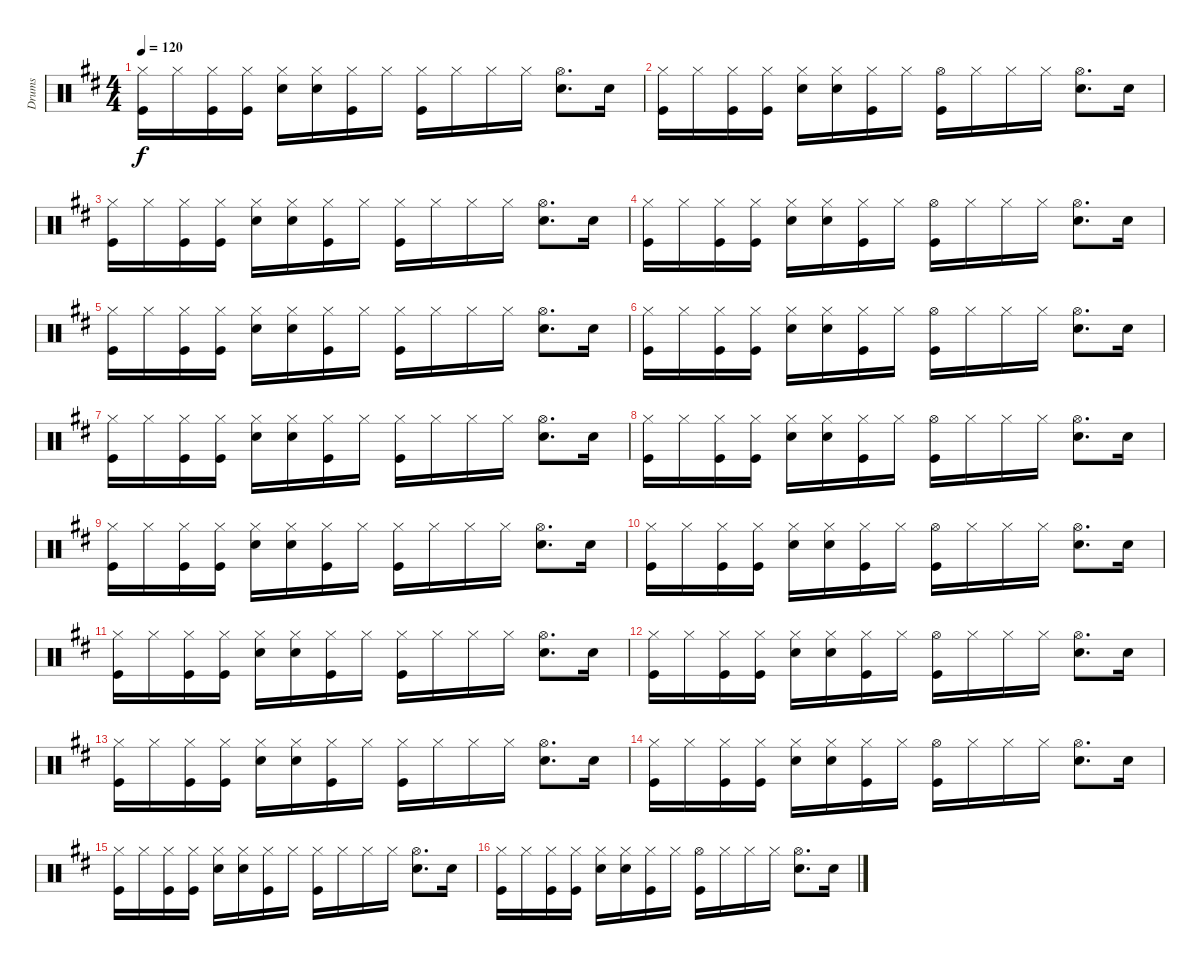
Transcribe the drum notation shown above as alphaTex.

\track ("Drums" "Drums") {instrument percussion}
\staff {score}
\articulation defaults
\ts (4 4)
\tempo 120
\clef neutral
\ks d
("Hi-Hat (closed)" "Kick (hit)").16{dy f} "Hi-Hat (closed)".16 ("Hi-Hat (closed)" "Kick (hit)").16 ("Hi-Hat (closed)" "Kick (hit)").16 ("Hi-Hat (closed)" "Snare (hit) 2").16 ("Hi-Hat (closed)" "Snare (hit) 2").16 ("Hi-Hat (closed)" "Kick (hit)").16 "Hi-Hat (closed)".16 ("Hi-Hat (closed)" "Kick (hit)").16 "Hi-Hat (closed)".16 "Hi-Hat (closed)".16 "Hi-Hat (closed)".16 ("Hi-Hat (open)" "Snare (hit) 2").8{d} "Snare (hit) 2".16 |
("Hi-Hat (closed)" "Kick (hit)").16 "Hi-Hat (closed)".16 ("Hi-Hat (closed)" "Kick (hit)").16 ("Hi-Hat (closed)" "Kick (hit)").16 ("Hi-Hat (closed)" "Snare (hit) 2").16 ("Hi-Hat (closed)" "Snare (hit) 2").16 ("Hi-Hat (closed)" "Kick (hit)").16 "Hi-Hat (closed)".16 ("Hi-Hat (open)" "Kick (hit)").16 "Hi-Hat (closed)".16 "Hi-Hat (closed)".16 "Hi-Hat (closed)".16 ("Hi-Hat (open)" "Snare (hit) 2").8{d} "Snare (hit) 2".16 |
("Hi-Hat (closed)" "Kick (hit)").16 "Hi-Hat (closed)".16 ("Hi-Hat (closed)" "Kick (hit)").16 ("Hi-Hat (closed)" "Kick (hit)").16 ("Hi-Hat (closed)" "Snare (hit) 2").16 ("Hi-Hat (closed)" "Snare (hit) 2").16 ("Hi-Hat (closed)" "Kick (hit)").16 "Hi-Hat (closed)".16 ("Hi-Hat (closed)" "Kick (hit)").16 "Hi-Hat (closed)".16 "Hi-Hat (closed)".16 "Hi-Hat (closed)".16 ("Hi-Hat (open)" "Snare (hit) 2").8{d} "Snare (hit) 2".16 |
("Hi-Hat (closed)" "Kick (hit)").16 "Hi-Hat (closed)".16 ("Hi-Hat (closed)" "Kick (hit)").16 ("Hi-Hat (closed)" "Kick (hit)").16 ("Hi-Hat (closed)" "Snare (hit) 2").16 ("Hi-Hat (closed)" "Snare (hit) 2").16 ("Hi-Hat (closed)" "Kick (hit)").16 "Hi-Hat (closed)".16 ("Hi-Hat (open)" "Kick (hit)").16 "Hi-Hat (closed)".16 "Hi-Hat (closed)".16 "Hi-Hat (closed)".16 ("Hi-Hat (open)" "Snare (hit) 2").8{d} "Snare (hit) 2".16 |
("Hi-Hat (closed)" "Kick (hit)").16 "Hi-Hat (closed)".16 ("Hi-Hat (closed)" "Kick (hit)").16 ("Hi-Hat (closed)" "Kick (hit)").16 ("Hi-Hat (closed)" "Snare (hit) 2").16 ("Hi-Hat (closed)" "Snare (hit) 2").16 ("Hi-Hat (closed)" "Kick (hit)").16 "Hi-Hat (closed)".16 ("Hi-Hat (closed)" "Kick (hit)").16 "Hi-Hat (closed)".16 "Hi-Hat (closed)".16 "Hi-Hat (closed)".16 ("Hi-Hat (open)" "Snare (hit) 2").8{d} "Snare (hit) 2".16 |
("Hi-Hat (closed)" "Kick (hit)").16 "Hi-Hat (closed)".16 ("Hi-Hat (closed)" "Kick (hit)").16 ("Hi-Hat (closed)" "Kick (hit)").16 ("Hi-Hat (closed)" "Snare (hit) 2").16 ("Hi-Hat (closed)" "Snare (hit) 2").16 ("Hi-Hat (closed)" "Kick (hit)").16 "Hi-Hat (closed)".16 ("Hi-Hat (open)" "Kick (hit)").16 "Hi-Hat (closed)".16 "Hi-Hat (closed)".16 "Hi-Hat (closed)".16 ("Hi-Hat (open)" "Snare (hit) 2").8{d} "Snare (hit) 2".16 |
("Hi-Hat (closed)" "Kick (hit)").16 "Hi-Hat (closed)".16 ("Hi-Hat (closed)" "Kick (hit)").16 ("Hi-Hat (closed)" "Kick (hit)").16 ("Hi-Hat (closed)" "Snare (hit) 2").16 ("Hi-Hat (closed)" "Snare (hit) 2").16 ("Hi-Hat (closed)" "Kick (hit)").16 "Hi-Hat (closed)".16 ("Hi-Hat (closed)" "Kick (hit)").16 "Hi-Hat (closed)".16 "Hi-Hat (closed)".16 "Hi-Hat (closed)".16 ("Hi-Hat (open)" "Snare (hit) 2").8{d} "Snare (hit) 2".16 |
("Hi-Hat (closed)" "Kick (hit)").16 "Hi-Hat (closed)".16 ("Hi-Hat (closed)" "Kick (hit)").16 ("Hi-Hat (closed)" "Kick (hit)").16 ("Hi-Hat (closed)" "Snare (hit) 2").16 ("Hi-Hat (closed)" "Snare (hit) 2").16 ("Hi-Hat (closed)" "Kick (hit)").16 "Hi-Hat (closed)".16 ("Hi-Hat (open)" "Kick (hit)").16 "Hi-Hat (closed)".16 "Hi-Hat (closed)".16 "Hi-Hat (closed)".16 ("Hi-Hat (open)" "Snare (hit) 2").8{d} "Snare (hit) 2".16 |
("Hi-Hat (closed)" "Kick (hit)").16 "Hi-Hat (closed)".16 ("Hi-Hat (closed)" "Kick (hit)").16 ("Hi-Hat (closed)" "Kick (hit)").16 ("Hi-Hat (closed)" "Snare (hit) 2").16 ("Hi-Hat (closed)" "Snare (hit) 2").16 ("Hi-Hat (closed)" "Kick (hit)").16 "Hi-Hat (closed)".16 ("Hi-Hat (closed)" "Kick (hit)").16 "Hi-Hat (closed)".16 "Hi-Hat (closed)".16 "Hi-Hat (closed)".16 ("Hi-Hat (open)" "Snare (hit) 2").8{d} "Snare (hit) 2".16 |
("Hi-Hat (closed)" "Kick (hit)").16 "Hi-Hat (closed)".16 ("Hi-Hat (closed)" "Kick (hit)").16 ("Hi-Hat (closed)" "Kick (hit)").16 ("Hi-Hat (closed)" "Snare (hit) 2").16 ("Hi-Hat (closed)" "Snare (hit) 2").16 ("Hi-Hat (closed)" "Kick (hit)").16 "Hi-Hat (closed)".16 ("Hi-Hat (open)" "Kick (hit)").16 "Hi-Hat (closed)".16 "Hi-Hat (closed)".16 "Hi-Hat (closed)".16 ("Hi-Hat (open)" "Snare (hit) 2").8{d} "Snare (hit) 2".16 |
("Hi-Hat (closed)" "Kick (hit)").16 "Hi-Hat (closed)".16 ("Hi-Hat (closed)" "Kick (hit)").16 ("Hi-Hat (closed)" "Kick (hit)").16 ("Hi-Hat (closed)" "Snare (hit) 2").16 ("Hi-Hat (closed)" "Snare (hit) 2").16 ("Hi-Hat (closed)" "Kick (hit)").16 "Hi-Hat (closed)".16 ("Hi-Hat (closed)" "Kick (hit)").16 "Hi-Hat (closed)".16 "Hi-Hat (closed)".16 "Hi-Hat (closed)".16 ("Hi-Hat (open)" "Snare (hit) 2").8{d} "Snare (hit) 2".16 |
("Hi-Hat (closed)" "Kick (hit)").16 "Hi-Hat (closed)".16 ("Hi-Hat (closed)" "Kick (hit)").16 ("Hi-Hat (closed)" "Kick (hit)").16 ("Hi-Hat (closed)" "Snare (hit) 2").16 ("Hi-Hat (closed)" "Snare (hit) 2").16 ("Hi-Hat (closed)" "Kick (hit)").16 "Hi-Hat (closed)".16 ("Hi-Hat (open)" "Kick (hit)").16 "Hi-Hat (closed)".16 "Hi-Hat (closed)".16 "Hi-Hat (closed)".16 ("Hi-Hat (open)" "Snare (hit) 2").8{d} "Snare (hit) 2".16 |
("Hi-Hat (closed)" "Kick (hit)").16 "Hi-Hat (closed)".16 ("Hi-Hat (closed)" "Kick (hit)").16 ("Hi-Hat (closed)" "Kick (hit)").16 ("Hi-Hat (closed)" "Snare (hit) 2").16 ("Hi-Hat (closed)" "Snare (hit) 2").16 ("Hi-Hat (closed)" "Kick (hit)").16 "Hi-Hat (closed)".16 ("Hi-Hat (closed)" "Kick (hit)").16 "Hi-Hat (closed)".16 "Hi-Hat (closed)".16 "Hi-Hat (closed)".16 ("Hi-Hat (open)" "Snare (hit) 2").8{d} "Snare (hit) 2".16 |
("Hi-Hat (closed)" "Kick (hit)").16 "Hi-Hat (closed)".16 ("Hi-Hat (closed)" "Kick (hit)").16 ("Hi-Hat (closed)" "Kick (hit)").16 ("Hi-Hat (closed)" "Snare (hit) 2").16 ("Hi-Hat (closed)" "Snare (hit) 2").16 ("Hi-Hat (closed)" "Kick (hit)").16 "Hi-Hat (closed)".16 ("Hi-Hat (open)" "Kick (hit)").16 "Hi-Hat (closed)".16 "Hi-Hat (closed)".16 "Hi-Hat (closed)".16 ("Hi-Hat (open)" "Snare (hit) 2").8{d} "Snare (hit) 2".16 |
("Hi-Hat (closed)" "Kick (hit)").16 "Hi-Hat (closed)".16 ("Hi-Hat (closed)" "Kick (hit)").16 ("Hi-Hat (closed)" "Kick (hit)").16 ("Hi-Hat (closed)" "Snare (hit) 2").16 ("Hi-Hat (closed)" "Snare (hit) 2").16 ("Hi-Hat (closed)" "Kick (hit)").16 "Hi-Hat (closed)".16 ("Hi-Hat (closed)" "Kick (hit)").16 "Hi-Hat (closed)".16 "Hi-Hat (closed)".16 "Hi-Hat (closed)".16 ("Hi-Hat (open)" "Snare (hit) 2").8{d} "Snare (hit) 2".16 |
("Hi-Hat (closed)" "Kick (hit)").16 "Hi-Hat (closed)".16 ("Hi-Hat (closed)" "Kick (hit)").16 ("Hi-Hat (closed)" "Kick (hit)").16 ("Hi-Hat (closed)" "Snare (hit) 2").16 ("Hi-Hat (closed)" "Snare (hit) 2").16 ("Hi-Hat (closed)" "Kick (hit)").16 "Hi-Hat (closed)".16 ("Hi-Hat (open)" "Kick (hit)").16 "Hi-Hat (closed)".16 "Hi-Hat (closed)".16 "Hi-Hat (closed)".16 ("Hi-Hat (open)" "Snare (hit) 2").8{d} "Snare (hit) 2".16
